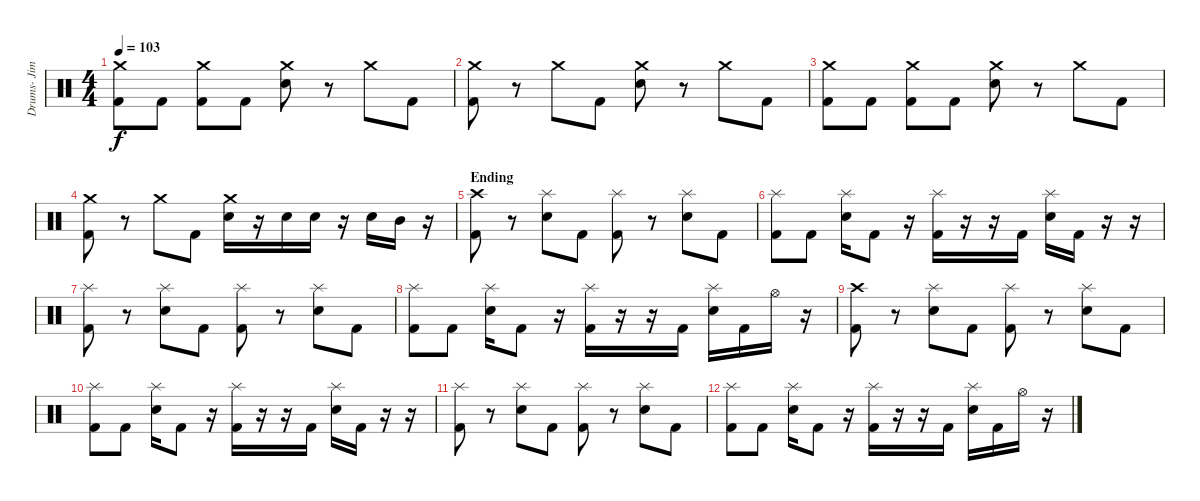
\track ("Drums- Jimmy Bower" "Drums- Jim") {instrument percussion}
\staff {score}
\articulation defaults
\ts (4 4)
\tempo 103
\clef neutral
\ks c
("Crash medium (hit)" "Kick (hit) 2").8{dy f} "Kick (hit) 2".8 ("Crash medium (hit)" "Kick (hit) 2").8 "Kick (hit) 2".8 ("Crash medium (hit)" "Electric Snare (hit)").8 r.8 "Crash medium (hit)".8 "Kick (hit) 2".8 |
("Crash medium (hit)" "Kick (hit) 2").8 r.8 "Crash medium (hit)".8 "Kick (hit) 2".8 ("Crash medium (hit)" "Electric Snare (hit)").8 r.8 "Crash medium (hit)".8 "Kick (hit) 2".8 |
("Crash medium (hit)" "Kick (hit) 2").8 "Kick (hit) 2".8 ("Crash medium (hit)" "Kick (hit) 2").8 "Kick (hit) 2".8 ("Crash medium (hit)" "Electric Snare (hit)").8 r.8 "Crash medium (hit)".8 "Kick (hit) 2".8 |
("Crash medium (hit)" "Kick (hit) 2").8 r.8 "Crash medium (hit)".8 "Kick (hit) 2".8 ("Crash medium (hit)" "Electric Snare (hit)").16 r.16 "Electric Snare (hit)".16 "Electric Snare (hit)".16 r.16 "Electric Snare (hit)".16 "Mid Tom (hit)".16 r.16 |
\section ("" "Ending")
("Crash high (hit)" "Kick (hit) 2").8 r.8 ("Splash (hit)" "Electric Snare (hit)").8 "Kick (hit) 2".8 ("Splash (hit)" "Kick (hit) 2").8 r.8 ("Splash (hit)" "Electric Snare (hit)").8 "Kick (hit) 2".8 |
("Splash (hit)" "Kick (hit) 2").8 "Kick (hit) 2".8 ("Splash (hit)" "Electric Snare (hit)").16 "Kick (hit) 2".8 r.16 ("Splash (hit)" "Kick (hit) 2").16 r.16 r.16 "Kick (hit) 2".16 ("Splash (hit)" "Electric Snare (hit)").16 "Kick (hit) 2".16 r.16 r.16 |
("Splash (hit)" "Kick (hit) 2").8 r.8 ("Splash (hit)" "Electric Snare (hit)").8 "Kick (hit) 2".8 ("Splash (hit)" "Kick (hit) 2").8 r.8 ("Splash (hit)" "Electric Snare (hit)").8 "Kick (hit) 2".8 |
("Splash (hit)" "Kick (hit) 2").8 "Kick (hit) 2".8 ("Splash (hit)" "Electric Snare (hit)").16 "Kick (hit) 2".8 r.16 ("Splash (hit)" "Kick (hit) 2").16 r.16 r.16 "Kick (hit) 2".16 ("Splash (hit)" "Electric Snare (hit)").16 "Kick (hit) 2".16 "Hi-Hat (open)".16 r.16 |
("Crash high (hit)" "Kick (hit) 2").8 r.8 ("Splash (hit)" "Electric Snare (hit)").8 "Kick (hit) 2".8 ("Splash (hit)" "Kick (hit) 2").8 r.8 ("Splash (hit)" "Electric Snare (hit)").8 "Kick (hit) 2".8 |
("Splash (hit)" "Kick (hit) 2").8 "Kick (hit) 2".8 ("Splash (hit)" "Electric Snare (hit)").16 "Kick (hit) 2".8 r.16 ("Splash (hit)" "Kick (hit) 2").16 r.16 r.16 "Kick (hit) 2".16 ("Splash (hit)" "Electric Snare (hit)").16 "Kick (hit) 2".16 r.16 r.16 |
("Splash (hit)" "Kick (hit) 2").8 r.8 ("Splash (hit)" "Electric Snare (hit)").8 "Kick (hit) 2".8 ("Splash (hit)" "Kick (hit) 2").8 r.8 ("Splash (hit)" "Electric Snare (hit)").8 "Kick (hit) 2".8 |
("Splash (hit)" "Kick (hit) 2").8 "Kick (hit) 2".8 ("Splash (hit)" "Electric Snare (hit)").16 "Kick (hit) 2".8 r.16 ("Splash (hit)" "Kick (hit) 2").16 r.16 r.16 "Kick (hit) 2".16 ("Splash (hit)" "Electric Snare (hit)").16 "Kick (hit) 2".16 "Hi-Hat (open)".16 r.16
